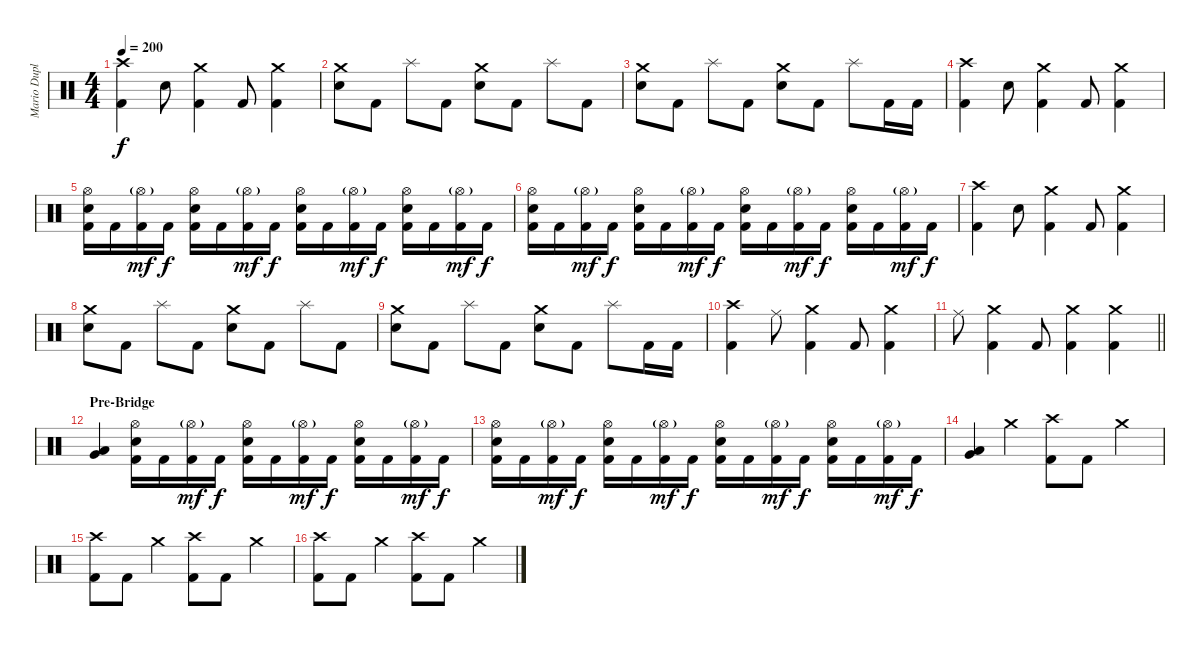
\track ("Mario Duplantier" "Mario Dupl") {instrument percussion}
\staff {score}
\articulation defaults
\ts (4 4)
\tempo 200
\clef neutral
\ks c
("Crash high (hit)" "Kick (hit) 2").4{dy f} "Electric Snare (hit)".8 ("Crash medium (hit)" "Kick (hit) 2").4 "Kick (hit) 2".8 ("Crash medium (hit)" "Kick (hit) 2").4 |
("Crash medium (hit)" "Electric Snare (hit)").8 "Kick (hit) 2".8 "Splash (hit)".8 "Kick (hit) 2".8 ("Crash medium (hit)" "Electric Snare (hit)").8 "Kick (hit) 2".8 "Splash (hit)".8 "Kick (hit) 2".8 |
("Crash medium (hit)" "Electric Snare (hit)").8 "Kick (hit) 2".8 "Splash (hit)".8 "Kick (hit) 2".8 ("Crash medium (hit)" "Electric Snare (hit)").8 "Kick (hit) 2".8 "Splash (hit)".8 "Kick (hit) 2".16 "Kick (hit) 2".16 |
("Crash high (hit)" "Kick (hit) 2").4 "Electric Snare (hit)".8 ("Crash medium (hit)" "Kick (hit) 2").4 "Kick (hit) 2".8 ("Crash medium (hit)" "Kick (hit) 2").4 |
("Hi-Hat (open)" "Electric Snare (hit)" "Kick (hit) 2").16 "Kick (hit) 2".16 ("Hi-Hat (open)"{g} "Kick (hit) 2").16{dy mf} "Kick (hit) 2".16{dy f} ("Hi-Hat (open)" "Electric Snare (hit)" "Kick (hit) 2").16 "Kick (hit) 2".16 ("Hi-Hat (open)"{g} "Kick (hit) 2").16{dy mf} "Kick (hit) 2".16{dy f} ("Hi-Hat (open)" "Electric Snare (hit)" "Kick (hit) 2").16 "Kick (hit) 2".16 ("Hi-Hat (open)"{g} "Kick (hit) 2").16{dy mf} "Kick (hit) 2".16{dy f} ("Hi-Hat (open)" "Electric Snare (hit)" "Kick (hit) 2").16 "Kick (hit) 2".16 ("Hi-Hat (open)"{g} "Kick (hit) 2").16{dy mf} "Kick (hit) 2".16{dy f} |
("Hi-Hat (open)" "Electric Snare (hit)" "Kick (hit) 2").16 "Kick (hit) 2".16 ("Hi-Hat (open)"{g} "Kick (hit) 2").16{dy mf} "Kick (hit) 2".16{dy f} ("Hi-Hat (open)" "Electric Snare (hit)" "Kick (hit) 2").16 "Kick (hit) 2".16 ("Hi-Hat (open)"{g} "Kick (hit) 2").16{dy mf} "Kick (hit) 2".16{dy f} ("Hi-Hat (open)" "Electric Snare (hit)" "Kick (hit) 2").16 "Kick (hit) 2".16 ("Hi-Hat (open)"{g} "Kick (hit) 2").16{dy mf} "Kick (hit) 2".16{dy f} ("Hi-Hat (open)" "Electric Snare (hit)" "Kick (hit) 2").16 "Kick (hit) 2".16 ("Hi-Hat (open)"{g} "Kick (hit) 2").16{dy mf} "Kick (hit) 2".16{dy f} |
("Crash high (hit)" "Kick (hit) 2").4 "Electric Snare (hit)".8 ("Crash medium (hit)" "Kick (hit) 2").4 "Kick (hit) 2".8 ("Crash medium (hit)" "Kick (hit) 2").4 |
("Crash medium (hit)" "Electric Snare (hit)").8 "Kick (hit) 2".8 "Splash (hit)".8 "Kick (hit) 2".8 ("Crash medium (hit)" "Electric Snare (hit)").8 "Kick (hit) 2".8 "Splash (hit)".8 "Kick (hit) 2".8 |
("Crash medium (hit)" "Electric Snare (hit)").8 "Kick (hit) 2".8 "Splash (hit)".8 "Kick (hit) 2".8 ("Crash medium (hit)" "Electric Snare (hit)").8 "Kick (hit) 2".8 "Splash (hit)".8 "Kick (hit) 2".16 "Kick (hit) 2".16 |
("Crash high (hit)" "Kick (hit) 2").4 "Ride (middle)".8 ("Crash medium (hit)" "Kick (hit) 2").4 "Kick (hit) 2".8 ("Crash medium (hit)" "Kick (hit) 2").4 |
\barLineRight lightlight "Ride (middle)".8
("Crash medium (hit)" "Kick (hit) 2").4 "Kick (hit) 2".8 ("Crash medium (hit)" "Kick (hit) 2").4 ("Crash medium (hit)" "Kick (hit) 2").4 |
\section ("" "Pre-Bridge")
("Low Floor Tom (hit)" "Very Low Tom (hit)").4 ("Hi-Hat (open)" "Electric Snare (hit)" "Kick (hit) 2").16 "Kick (hit) 2".16 ("Hi-Hat (open)"{g} "Kick (hit) 2").16{dy mf} "Kick (hit) 2".16{dy f} ("Hi-Hat (open)" "Electric Snare (hit)" "Kick (hit) 2").16 "Kick (hit) 2".16 ("Hi-Hat (open)"{g} "Kick (hit) 2").16{dy mf} "Kick (hit) 2".16{dy f} ("Hi-Hat (open)" "Electric Snare (hit)" "Kick (hit) 2").16 "Kick (hit) 2".16 ("Hi-Hat (open)"{g} "Kick (hit) 2").16{dy mf} "Kick (hit) 2".16{dy f} |
("Hi-Hat (open)" "Electric Snare (hit)" "Kick (hit) 2").16 "Kick (hit) 2".16 ("Hi-Hat (open)"{g} "Kick (hit) 2").16{dy mf} "Kick (hit) 2".16{dy f} ("Hi-Hat (open)" "Electric Snare (hit)" "Kick (hit) 2").16 "Kick (hit) 2".16 ("Hi-Hat (open)"{g} "Kick (hit) 2").16{dy mf} "Kick (hit) 2".16{dy f} ("Hi-Hat (open)" "Electric Snare (hit)" "Kick (hit) 2").16 "Kick (hit) 2".16 ("Hi-Hat (open)"{g} "Kick (hit) 2").16{dy mf} "Kick (hit) 2".16{dy f} ("Hi-Hat (open)" "Electric Snare (hit)" "Kick (hit) 2").16 "Kick (hit) 2".16 ("Hi-Hat (open)"{g} "Kick (hit) 2").16{dy mf} "Kick (hit) 2".16{dy f} |
("Low Floor Tom (hit)" "Very Low Tom (hit)").4 "Crash medium (hit)".4 ("Crash high (hit)" "Kick (hit) 2").8 "Kick (hit) 2".8 "Crash medium (hit)".4 |
("Crash high (hit)" "Kick (hit) 2").8 "Kick (hit) 2".8 "Crash medium (hit)".4 ("Crash high (hit)" "Kick (hit) 2").8 "Kick (hit) 2".8 "Crash medium (hit)".4 |
("Crash high (hit)" "Kick (hit) 2").8 "Kick (hit) 2".8 "Crash medium (hit)".4 ("Crash high (hit)" "Kick (hit) 2").8 "Kick (hit) 2".8 "Crash medium (hit)".4
